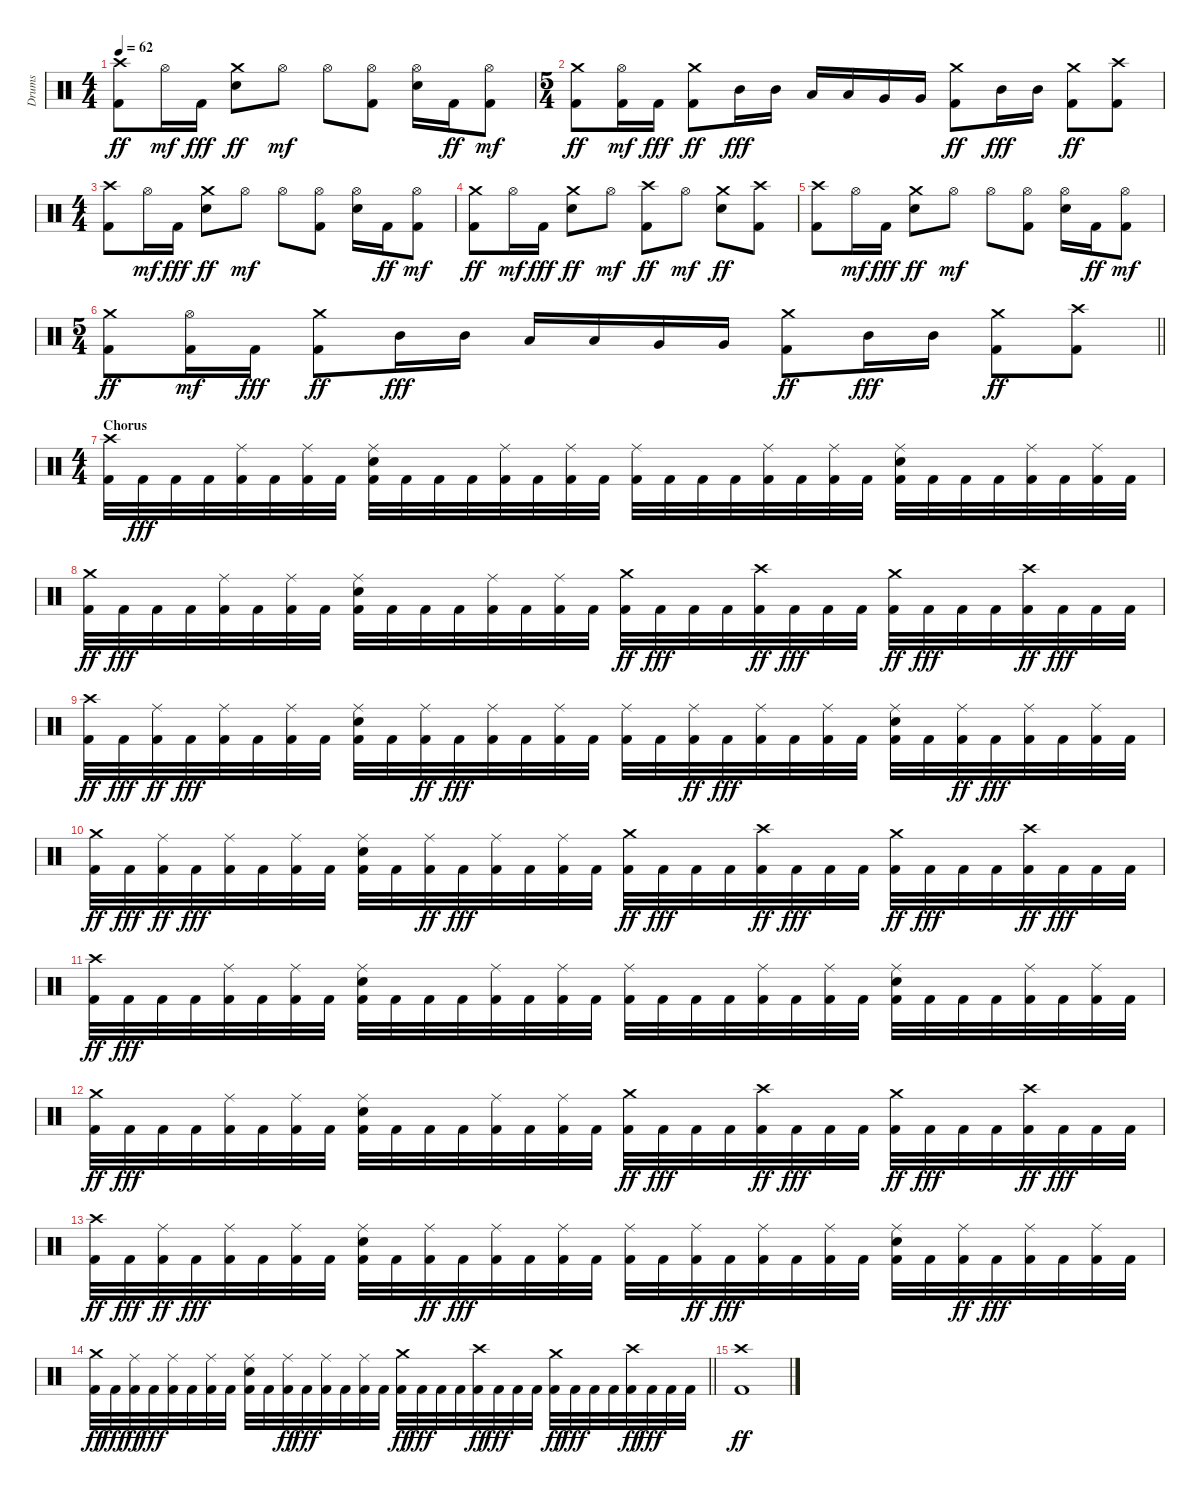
\track ("Drums" "Drums") {instrument percussion}
\staff {score}
\articulation defaults
\ts (4 4)
\tempo 62
\clef neutral
\ks c
("Kick (hit) 2" "Crash high (hit)").8{dy ff} "Hi-Hat (open)".16{dy mf} "Kick (hit) 2".16{dy fff} ("Electric Snare (hit)" "Crash medium (hit)").8{dy ff} "Hi-Hat (open)".8{dy mf} "Hi-Hat (open)".8 ("Kick (hit) 2" "Hi-Hat (open)").8 ("Electric Snare (hit)" "Hi-Hat (open)").16 "Kick (hit) 2".16{dy ff} ("Kick (hit) 2" "Hi-Hat (open)").8{dy mf} |
\ts (5 4)
("Kick (hit) 2" "Crash medium (hit)").8{dy ff} ("Kick (hit) 2" "Hi-Hat (open)").16{dy mf} "Kick (hit) 2".16{dy fff} ("Kick (hit) 2" "Crash medium (hit)").8{dy ff} "Mid Tom (hit)".16{dy fff} "Mid Tom (hit)".16 "Low Tom (hit)".16 "Low Tom (hit)".16 "Very Low Tom (hit)".16 "Very Low Tom (hit)".16 ("Kick (hit) 2" "Crash medium (hit)").8{dy ff} "Mid Tom (hit)".16{dy fff} "Mid Tom (hit)".16 ("Kick (hit) 2" "Crash medium (hit)").8{dy ff} ("Kick (hit) 2" "Crash high (hit)").8 |
\ts (4 4)
("Kick (hit) 2" "Crash high (hit)").8 "Hi-Hat (open)".16{dy mf} "Kick (hit) 2".16{dy fff} ("Electric Snare (hit)" "Crash medium (hit)").8{dy ff} "Hi-Hat (open)".8{dy mf} "Hi-Hat (open)".8 ("Kick (hit) 2" "Hi-Hat (open)").8 ("Electric Snare (hit)" "Hi-Hat (open)").16 "Kick (hit) 2".16{dy ff} ("Kick (hit) 2" "Hi-Hat (open)").8{dy mf} |
("Kick (hit) 2" "Crash medium (hit)").8{dy ff} "Hi-Hat (open)".16{dy mf} "Kick (hit) 2".16{dy fff} ("Electric Snare (hit)" "Crash medium (hit)").8{dy ff} "Hi-Hat (open)".8{dy mf} ("Kick (hit) 2" "Crash high (hit)").8{dy ff} "Hi-Hat (open)".8{dy mf} ("Electric Snare (hit)" "Crash medium (hit)").8{dy ff} ("Kick (hit) 2" "Crash high (hit)").8 |
("Kick (hit) 2" "Crash high (hit)").8 "Hi-Hat (open)".16{dy mf} "Kick (hit) 2".16{dy fff} ("Electric Snare (hit)" "Crash medium (hit)").8{dy ff} "Hi-Hat (open)".8{dy mf} "Hi-Hat (open)".8 ("Kick (hit) 2" "Hi-Hat (open)").8 ("Electric Snare (hit)" "Hi-Hat (open)").16 "Kick (hit) 2".16{dy ff} ("Kick (hit) 2" "Hi-Hat (open)").8{dy mf} |
\ts (5 4)
\barLineRight lightlight
("Kick (hit) 2" "Crash medium (hit)").8{dy ff} ("Kick (hit) 2" "Hi-Hat (open)").16{dy mf} "Kick (hit) 2".16{dy fff} ("Kick (hit) 2" "Crash medium (hit)").8{dy ff} "Mid Tom (hit)".16{dy fff} "Mid Tom (hit)".16 "Low Tom (hit)".16 "Low Tom (hit)".16 "Very Low Tom (hit)".16 "Very Low Tom (hit)".16 ("Kick (hit) 2" "Crash medium (hit)").8{dy ff} "Mid Tom (hit)".16{dy fff} "Mid Tom (hit)".16 ("Kick (hit) 2" "Crash medium (hit)").8{dy ff} ("Kick (hit) 2" "Crash high (hit)").8 |
\ts (4 4)
\section ("" "Chorus")
("Kick (hit) 2" "Crash high (hit)").32 "Kick (hit) 2".32{dy fff} "Kick (hit) 2".32 "Kick (hit) 2".32 ("Kick (hit) 2" "Ride (middle)").32 "Kick (hit) 2".32 ("Kick (hit) 2" "Ride (middle)").32 "Kick (hit) 2".32 ("Kick (hit) 2" "Electric Snare (hit)" "Ride (middle)").32 "Kick (hit) 2".32 "Kick (hit) 2".32 "Kick (hit) 2".32 ("Kick (hit) 2" "Ride (middle)").32 "Kick (hit) 2".32 ("Kick (hit) 2" "Ride (middle)").32 "Kick (hit) 2".32 ("Kick (hit) 2" "Ride (middle)").32 "Kick (hit) 2".32 "Kick (hit) 2".32 "Kick (hit) 2".32 ("Kick (hit) 2" "Ride (middle)").32 "Kick (hit) 2".32 ("Kick (hit) 2" "Ride (middle)").32 "Kick (hit) 2".32 ("Kick (hit) 2" "Electric Snare (hit)" "Ride (middle)").32 "Kick (hit) 2".32 "Kick (hit) 2".32 "Kick (hit) 2".32 ("Kick (hit) 2" "Ride (middle)").32 "Kick (hit) 2".32 ("Kick (hit) 2" "Ride (middle)").32 "Kick (hit) 2".32 |
("Kick (hit) 2" "Crash medium (hit)").32{dy ff} "Kick (hit) 2".32{dy fff} "Kick (hit) 2".32 "Kick (hit) 2".32 ("Kick (hit) 2" "Ride (middle)").32 "Kick (hit) 2".32 ("Kick (hit) 2" "Ride (middle)").32 "Kick (hit) 2".32 ("Kick (hit) 2" "Electric Snare (hit)" "Ride (middle)").32 "Kick (hit) 2".32 "Kick (hit) 2".32 "Kick (hit) 2".32 ("Kick (hit) 2" "Ride (middle)").32 "Kick (hit) 2".32 ("Kick (hit) 2" "Ride (middle)").32 "Kick (hit) 2".32 ("Kick (hit) 2" "Crash medium (hit)").32{dy ff} "Kick (hit) 2".32{dy fff} "Kick (hit) 2".32 "Kick (hit) 2".32 ("Kick (hit) 2" "Crash high (hit)").32{dy ff} "Kick (hit) 2".32{dy fff} "Kick (hit) 2".32 "Kick (hit) 2".32 ("Kick (hit) 2" "Crash medium (hit)").32{dy ff} "Kick (hit) 2".32{dy fff} "Kick (hit) 2".32 "Kick (hit) 2".32 ("Kick (hit) 2" "Crash high (hit)").32{dy ff} "Kick (hit) 2".32{dy fff} "Kick (hit) 2".32 "Kick (hit) 2".32 |
("Kick (hit) 2" "Crash high (hit)").32{dy ff} "Kick (hit) 2".32{dy fff} ("Kick (hit) 2" "Ride (middle)").32{dy ff} "Kick (hit) 2".32{dy fff} ("Kick (hit) 2" "Ride (middle)").32 "Kick (hit) 2".32 ("Kick (hit) 2" "Ride (middle)").32 "Kick (hit) 2".32 ("Kick (hit) 2" "Electric Snare (hit)" "Ride (middle)").32 "Kick (hit) 2".32 ("Kick (hit) 2" "Ride (middle)").32{dy ff} "Kick (hit) 2".32{dy fff} ("Kick (hit) 2" "Ride (middle)").32 "Kick (hit) 2".32 ("Kick (hit) 2" "Ride (middle)").32 "Kick (hit) 2".32 ("Kick (hit) 2" "Ride (middle)").32 "Kick (hit) 2".32 ("Kick (hit) 2" "Ride (middle)").32{dy ff} "Kick (hit) 2".32{dy fff} ("Kick (hit) 2" "Ride (middle)").32 "Kick (hit) 2".32 ("Kick (hit) 2" "Ride (middle)").32 "Kick (hit) 2".32 ("Kick (hit) 2" "Electric Snare (hit)" "Ride (middle)").32 "Kick (hit) 2".32 ("Kick (hit) 2" "Ride (middle)").32{dy ff} "Kick (hit) 2".32{dy fff} ("Kick (hit) 2" "Ride (middle)").32 "Kick (hit) 2".32 ("Kick (hit) 2" "Ride (middle)").32 "Kick (hit) 2".32 |
("Kick (hit) 2" "Crash medium (hit)").32{dy ff} "Kick (hit) 2".32{dy fff} ("Kick (hit) 2" "Ride (middle)").32{dy ff} "Kick (hit) 2".32{dy fff} ("Kick (hit) 2" "Ride (middle)").32 "Kick (hit) 2".32 ("Kick (hit) 2" "Ride (middle)").32 "Kick (hit) 2".32 ("Kick (hit) 2" "Electric Snare (hit)" "Ride (middle)").32 "Kick (hit) 2".32 ("Kick (hit) 2" "Ride (middle)").32{dy ff} "Kick (hit) 2".32{dy fff} ("Kick (hit) 2" "Ride (middle)").32 "Kick (hit) 2".32 ("Kick (hit) 2" "Ride (middle)").32 "Kick (hit) 2".32 ("Kick (hit) 2" "Crash medium (hit)").32{dy ff} "Kick (hit) 2".32{dy fff} "Kick (hit) 2".32 "Kick (hit) 2".32 ("Kick (hit) 2" "Crash high (hit)").32{dy ff} "Kick (hit) 2".32{dy fff} "Kick (hit) 2".32 "Kick (hit) 2".32 ("Kick (hit) 2" "Crash medium (hit)").32{dy ff} "Kick (hit) 2".32{dy fff} "Kick (hit) 2".32 "Kick (hit) 2".32 ("Kick (hit) 2" "Crash high (hit)").32{dy ff} "Kick (hit) 2".32{dy fff} "Kick (hit) 2".32 "Kick (hit) 2".32 |
("Kick (hit) 2" "Crash high (hit)").32{dy ff} "Kick (hit) 2".32{dy fff} "Kick (hit) 2".32 "Kick (hit) 2".32 ("Kick (hit) 2" "Ride (middle)").32 "Kick (hit) 2".32 ("Kick (hit) 2" "Ride (middle)").32 "Kick (hit) 2".32 ("Kick (hit) 2" "Electric Snare (hit)" "Ride (middle)").32 "Kick (hit) 2".32 "Kick (hit) 2".32 "Kick (hit) 2".32 ("Kick (hit) 2" "Ride (middle)").32 "Kick (hit) 2".32 ("Kick (hit) 2" "Ride (middle)").32 "Kick (hit) 2".32 ("Kick (hit) 2" "Ride (middle)").32 "Kick (hit) 2".32 "Kick (hit) 2".32 "Kick (hit) 2".32 ("Kick (hit) 2" "Ride (middle)").32 "Kick (hit) 2".32 ("Kick (hit) 2" "Ride (middle)").32 "Kick (hit) 2".32 ("Kick (hit) 2" "Electric Snare (hit)" "Ride (middle)").32 "Kick (hit) 2".32 "Kick (hit) 2".32 "Kick (hit) 2".32 ("Kick (hit) 2" "Ride (middle)").32 "Kick (hit) 2".32 ("Kick (hit) 2" "Ride (middle)").32 "Kick (hit) 2".32 |
("Kick (hit) 2" "Crash medium (hit)").32{dy ff} "Kick (hit) 2".32{dy fff} "Kick (hit) 2".32 "Kick (hit) 2".32 ("Kick (hit) 2" "Ride (middle)").32 "Kick (hit) 2".32 ("Kick (hit) 2" "Ride (middle)").32 "Kick (hit) 2".32 ("Kick (hit) 2" "Electric Snare (hit)" "Ride (middle)").32 "Kick (hit) 2".32 "Kick (hit) 2".32 "Kick (hit) 2".32 ("Kick (hit) 2" "Ride (middle)").32 "Kick (hit) 2".32 ("Kick (hit) 2" "Ride (middle)").32 "Kick (hit) 2".32 ("Kick (hit) 2" "Crash medium (hit)").32{dy ff} "Kick (hit) 2".32{dy fff} "Kick (hit) 2".32 "Kick (hit) 2".32 ("Kick (hit) 2" "Crash high (hit)").32{dy ff} "Kick (hit) 2".32{dy fff} "Kick (hit) 2".32 "Kick (hit) 2".32 ("Kick (hit) 2" "Crash medium (hit)").32{dy ff} "Kick (hit) 2".32{dy fff} "Kick (hit) 2".32 "Kick (hit) 2".32 ("Kick (hit) 2" "Crash high (hit)").32{dy ff} "Kick (hit) 2".32{dy fff} "Kick (hit) 2".32 "Kick (hit) 2".32 |
("Kick (hit) 2" "Crash high (hit)").32{dy ff} "Kick (hit) 2".32{dy fff} ("Kick (hit) 2" "Ride (middle)").32{dy ff} "Kick (hit) 2".32{dy fff} ("Kick (hit) 2" "Ride (middle)").32 "Kick (hit) 2".32 ("Kick (hit) 2" "Ride (middle)").32 "Kick (hit) 2".32 ("Kick (hit) 2" "Electric Snare (hit)" "Ride (middle)").32 "Kick (hit) 2".32 ("Kick (hit) 2" "Ride (middle)").32{dy ff} "Kick (hit) 2".32{dy fff} ("Kick (hit) 2" "Ride (middle)").32 "Kick (hit) 2".32 ("Kick (hit) 2" "Ride (middle)").32 "Kick (hit) 2".32 ("Kick (hit) 2" "Ride (middle)").32 "Kick (hit) 2".32 ("Kick (hit) 2" "Ride (middle)").32{dy ff} "Kick (hit) 2".32{dy fff} ("Kick (hit) 2" "Ride (middle)").32 "Kick (hit) 2".32 ("Kick (hit) 2" "Ride (middle)").32 "Kick (hit) 2".32 ("Kick (hit) 2" "Electric Snare (hit)" "Ride (middle)").32 "Kick (hit) 2".32 ("Kick (hit) 2" "Ride (middle)").32{dy ff} "Kick (hit) 2".32{dy fff} ("Kick (hit) 2" "Ride (middle)").32 "Kick (hit) 2".32 ("Kick (hit) 2" "Ride (middle)").32 "Kick (hit) 2".32 |
\barLineRight lightlight
("Kick (hit) 2" "Crash medium (hit)").32{dy ff} "Kick (hit) 2".32{dy fff} ("Kick (hit) 2" "Ride (middle)").32{dy ff} "Kick (hit) 2".32{dy fff} ("Kick (hit) 2" "Ride (middle)").32 "Kick (hit) 2".32 ("Kick (hit) 2" "Ride (middle)").32 "Kick (hit) 2".32 ("Kick (hit) 2" "Electric Snare (hit)" "Ride (middle)").32 "Kick (hit) 2".32 ("Kick (hit) 2" "Ride (middle)").32{dy ff} "Kick (hit) 2".32{dy fff} ("Kick (hit) 2" "Ride (middle)").32 "Kick (hit) 2".32 ("Kick (hit) 2" "Ride (middle)").32 "Kick (hit) 2".32 ("Kick (hit) 2" "Crash medium (hit)").32{dy ff} "Kick (hit) 2".32{dy fff} "Kick (hit) 2".32 "Kick (hit) 2".32 ("Kick (hit) 2" "Crash high (hit)").32{dy ff} "Kick (hit) 2".32{dy fff} "Kick (hit) 2".32 "Kick (hit) 2".32 ("Kick (hit) 2" "Crash medium (hit)").32{dy ff} "Kick (hit) 2".32{dy fff} "Kick (hit) 2".32 "Kick (hit) 2".32 ("Kick (hit) 2" "Crash high (hit)").32{dy ff} "Kick (hit) 2".32{dy fff} "Kick (hit) 2".32 "Kick (hit) 2".32 |
("Kick (hit) 2" "Crash high (hit)").1{dy ff}
